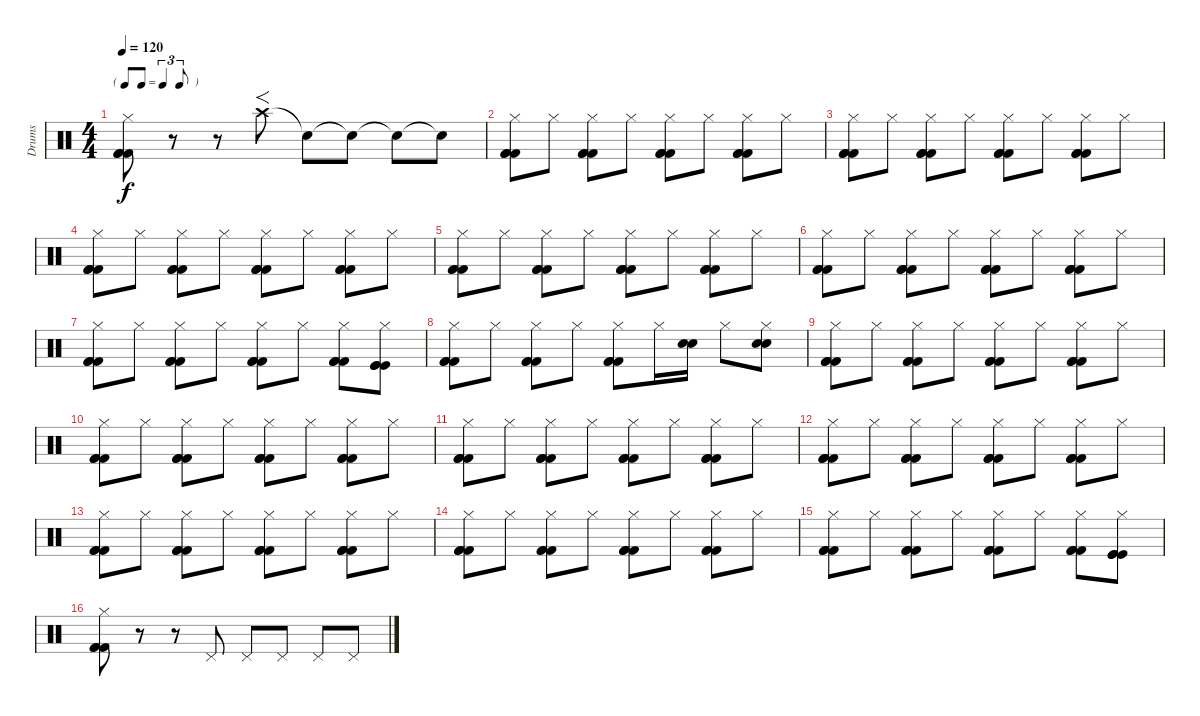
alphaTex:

\track ("Drums" "Drums") {instrument percussion}
\staff {score}
\articulation defaults
\ts (4 4)
\tf triplet8th
\tempo 120
\clef neutral
\ks c
("Hi-Hat (closed)" "Kick (hit) 2" "Kick (hit) 2" "Kick (hit) 2").8{dy f} r.8 r.8 "Crash high (hit)".8{f} "Snare (hit)"{t}.8 "Snare (hit)"{t}.8 "Snare (hit)"{t}.8 "Snare (hit)"{t}.8 |
("Hi-Hat (closed)" "Kick (hit) 2" "Kick (hit) 2" "Kick (hit) 2").8 "Hi-Hat (closed)".8 ("Hi-Hat (closed)" "Kick (hit) 2" "Kick (hit) 2" "Kick (hit) 2").8 "Hi-Hat (closed)".8 ("Hi-Hat (closed)" "Kick (hit) 2" "Kick (hit) 2" "Kick (hit) 2").8 "Hi-Hat (closed)".8 ("Hi-Hat (closed)" "Kick (hit) 2" "Kick (hit) 2" "Kick (hit) 2").8 "Hi-Hat (closed)".8 |
("Hi-Hat (closed)" "Kick (hit) 2" "Kick (hit) 2" "Kick (hit) 2").8 "Hi-Hat (closed)".8 ("Hi-Hat (closed)" "Kick (hit) 2" "Kick (hit) 2" "Kick (hit) 2").8 "Hi-Hat (closed)".8 ("Hi-Hat (closed)" "Kick (hit) 2" "Kick (hit) 2" "Kick (hit) 2").8 "Hi-Hat (closed)".8 ("Hi-Hat (closed)" "Kick (hit) 2" "Kick (hit) 2" "Kick (hit) 2").8 "Hi-Hat (closed)".8 |
("Hi-Hat (closed)" "Kick (hit) 2" "Kick (hit) 2" "Kick (hit) 2").8 "Hi-Hat (closed)".8 ("Hi-Hat (closed)" "Kick (hit) 2" "Kick (hit) 2" "Kick (hit) 2").8 "Hi-Hat (closed)".8 ("Hi-Hat (closed)" "Kick (hit) 2" "Kick (hit) 2" "Kick (hit) 2").8 "Hi-Hat (closed)".8 ("Hi-Hat (closed)" "Kick (hit) 2" "Kick (hit) 2" "Kick (hit) 2").8 "Hi-Hat (closed)".8 |
("Hi-Hat (closed)" "Kick (hit) 2" "Kick (hit) 2" "Kick (hit) 2").8 "Hi-Hat (closed)".8 ("Hi-Hat (closed)" "Kick (hit) 2" "Kick (hit) 2" "Kick (hit) 2").8 "Hi-Hat (closed)".8 ("Hi-Hat (closed)" "Kick (hit) 2" "Kick (hit) 2" "Kick (hit) 2").8 "Hi-Hat (closed)".8 ("Hi-Hat (closed)" "Kick (hit) 2" "Kick (hit) 2" "Kick (hit) 2").8 "Hi-Hat (closed)".8 |
("Hi-Hat (closed)" "Kick (hit) 2" "Kick (hit) 2" "Kick (hit) 2").8 "Hi-Hat (closed)".8 ("Hi-Hat (closed)" "Kick (hit) 2" "Kick (hit) 2" "Kick (hit) 2").8 "Hi-Hat (closed)".8 ("Hi-Hat (closed)" "Kick (hit) 2" "Kick (hit) 2" "Kick (hit) 2").8 "Hi-Hat (closed)".8 ("Hi-Hat (closed)" "Kick (hit) 2" "Kick (hit) 2" "Kick (hit) 2").8 "Hi-Hat (closed)".8 |
("Hi-Hat (closed)" "Kick (hit) 2" "Kick (hit) 2" "Kick (hit) 2").8 "Hi-Hat (closed)".8 ("Hi-Hat (closed)" "Kick (hit) 2" "Kick (hit) 2" "Kick (hit) 2").8 "Hi-Hat (closed)".8 ("Hi-Hat (closed)" "Kick (hit) 2" "Kick (hit) 2" "Kick (hit) 2").8 "Hi-Hat (closed)".8 ("Hi-Hat (closed)" "Kick (hit) 2" "Kick (hit) 2" "Kick (hit) 2").8 ("Hi-Hat (closed)" "Kick (hit)" "Kick (hit)" "Kick (hit)").8 |
("Hi-Hat (closed)" "Kick (hit) 2" "Kick (hit) 2" "Kick (hit) 2").8 "Hi-Hat (closed)".8 ("Hi-Hat (closed)" "Kick (hit) 2" "Kick (hit) 2" "Kick (hit) 2").8 "Hi-Hat (closed)".8 ("Hi-Hat (closed)" "Kick (hit) 2" "Kick (hit) 2" "Kick (hit) 2").8 "Hi-Hat (closed)".16 ("Electric Snare (hit)" "Electric Snare (hit)").16 "Hi-Hat (closed)".8 ("Hi-Hat (closed)" "Electric Snare (hit)" "Electric Snare (hit)").8 |
("Hi-Hat (closed)" "Kick (hit) 2" "Kick (hit) 2" "Kick (hit) 2").8 "Hi-Hat (closed)".8 ("Hi-Hat (closed)" "Kick (hit) 2" "Kick (hit) 2" "Kick (hit) 2").8 "Hi-Hat (closed)".8 ("Hi-Hat (closed)" "Kick (hit) 2" "Kick (hit) 2" "Kick (hit) 2").8 "Hi-Hat (closed)".8 ("Hi-Hat (closed)" "Kick (hit) 2" "Kick (hit) 2" "Kick (hit) 2").8 "Hi-Hat (closed)".8 |
("Hi-Hat (closed)" "Kick (hit) 2" "Kick (hit) 2" "Kick (hit) 2").8 "Hi-Hat (closed)".8 ("Hi-Hat (closed)" "Kick (hit) 2" "Kick (hit) 2" "Kick (hit) 2").8 "Hi-Hat (closed)".8 ("Hi-Hat (closed)" "Kick (hit) 2" "Kick (hit) 2" "Kick (hit) 2").8 "Hi-Hat (closed)".8 ("Hi-Hat (closed)" "Kick (hit) 2" "Kick (hit) 2" "Kick (hit) 2").8 "Hi-Hat (closed)".8 |
("Hi-Hat (closed)" "Kick (hit) 2" "Kick (hit) 2" "Kick (hit) 2").8 "Hi-Hat (closed)".8 ("Hi-Hat (closed)" "Kick (hit) 2" "Kick (hit) 2" "Kick (hit) 2").8 "Hi-Hat (closed)".8 ("Hi-Hat (closed)" "Kick (hit) 2" "Kick (hit) 2" "Kick (hit) 2").8 "Hi-Hat (closed)".8 ("Hi-Hat (closed)" "Kick (hit) 2" "Kick (hit) 2" "Kick (hit) 2").8 "Hi-Hat (closed)".8 |
("Hi-Hat (closed)" "Kick (hit) 2" "Kick (hit) 2" "Kick (hit) 2").8 "Hi-Hat (closed)".8 ("Hi-Hat (closed)" "Kick (hit) 2" "Kick (hit) 2" "Kick (hit) 2").8 "Hi-Hat (closed)".8 ("Hi-Hat (closed)" "Kick (hit) 2" "Kick (hit) 2" "Kick (hit) 2").8 "Hi-Hat (closed)".8 ("Hi-Hat (closed)" "Kick (hit) 2" "Kick (hit) 2" "Kick (hit) 2").8 "Hi-Hat (closed)".8 |
("Hi-Hat (closed)" "Kick (hit) 2" "Kick (hit) 2" "Kick (hit) 2").8 "Hi-Hat (closed)".8 ("Hi-Hat (closed)" "Kick (hit) 2" "Kick (hit) 2" "Kick (hit) 2").8 "Hi-Hat (closed)".8 ("Hi-Hat (closed)" "Kick (hit) 2" "Kick (hit) 2" "Kick (hit) 2").8 "Hi-Hat (closed)".8 ("Hi-Hat (closed)" "Kick (hit) 2" "Kick (hit) 2" "Kick (hit) 2").8 "Hi-Hat (closed)".8 |
("Hi-Hat (closed)" "Kick (hit) 2" "Kick (hit) 2" "Kick (hit) 2").8 "Hi-Hat (closed)".8 ("Hi-Hat (closed)" "Kick (hit) 2" "Kick (hit) 2" "Kick (hit) 2").8 "Hi-Hat (closed)".8 ("Hi-Hat (closed)" "Kick (hit) 2" "Kick (hit) 2" "Kick (hit) 2").8 "Hi-Hat (closed)".8 ("Hi-Hat (closed)" "Kick (hit) 2" "Kick (hit) 2" "Kick (hit) 2").8 "Hi-Hat (closed)".8 |
("Hi-Hat (closed)" "Kick (hit) 2" "Kick (hit) 2" "Kick (hit) 2").8 "Hi-Hat (closed)".8 ("Hi-Hat (closed)" "Kick (hit) 2" "Kick (hit) 2" "Kick (hit) 2").8 "Hi-Hat (closed)".8 ("Hi-Hat (closed)" "Kick (hit) 2" "Kick (hit) 2" "Kick (hit) 2").8 "Hi-Hat (closed)".8 ("Hi-Hat (closed)" "Kick (hit) 2" "Kick (hit) 2" "Kick (hit) 2").8 ("Hi-Hat (closed)" "Kick (hit)" "Kick (hit)" "Kick (hit)").8 |
("Hi-Hat (closed)" "Kick (hit) 2" "Kick (hit) 2" "Kick (hit) 2").8 r.8 r.8 "Pedal Hi-Hat (hit)".8 "Pedal Hi-Hat (hit)".8 "Pedal Hi-Hat (hit)".8 "Pedal Hi-Hat (hit)".8 "Pedal Hi-Hat (hit)".8
